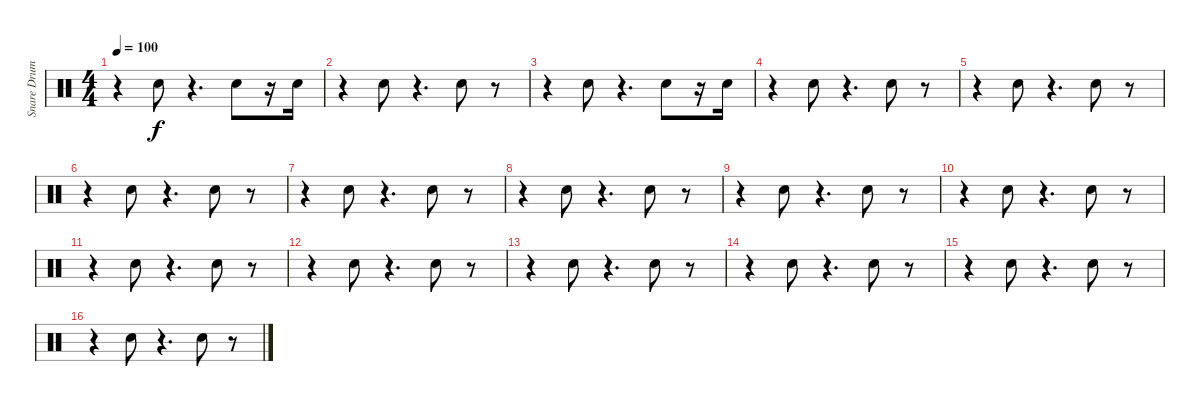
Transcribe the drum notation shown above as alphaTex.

\track ("Snare Drum" "Snare Drum") {instrument percussion}
\staff {score}
\articulation defaults
\ts (4 4)
\tempo 100
\clef neutral
\ks c
r.4{dy f} "Snare (hit) 2".8 r.4{d} "Snare (hit) 2".8 r.16 "Snare (hit) 2".16 |
r.4 "Snare (hit) 2".8 r.4{d} "Snare (hit) 2".8 r.8 |
r.4 "Snare (hit) 2".8 r.4{d} "Snare (hit) 2".8 r.16 "Snare (hit) 2".16 |
r.4 "Snare (hit) 2".8 r.4{d} "Snare (hit) 2".8 r.8 |
r.4 "Snare (hit) 2".8 r.4{d} "Snare (hit) 2".8 r.8 |
r.4 "Snare (hit) 2".8 r.4{d} "Snare (hit) 2".8 r.8 |
r.4 "Snare (hit) 2".8 r.4{d} "Snare (hit) 2".8 r.8 |
r.4 "Snare (hit) 2".8 r.4{d} "Snare (hit) 2".8 r.8 |
r.4 "Snare (hit) 2".8 r.4{d} "Snare (hit) 2".8 r.8 |
r.4 "Snare (hit) 2".8 r.4{d} "Snare (hit) 2".8 r.8 |
r.4 "Snare (hit) 2".8 r.4{d} "Snare (hit) 2".8 r.8 |
r.4 "Snare (hit) 2".8 r.4{d} "Snare (hit) 2".8 r.8 |
r.4 "Snare (hit) 2".8 r.4{d} "Snare (hit) 2".8 r.8 |
r.4 "Snare (hit) 2".8 r.4{d} "Snare (hit) 2".8 r.8 |
r.4 "Snare (hit) 2".8 r.4{d} "Snare (hit) 2".8 r.8 |
r.4 "Snare (hit) 2".8 r.4{d} "Snare (hit) 2".8 r.8
